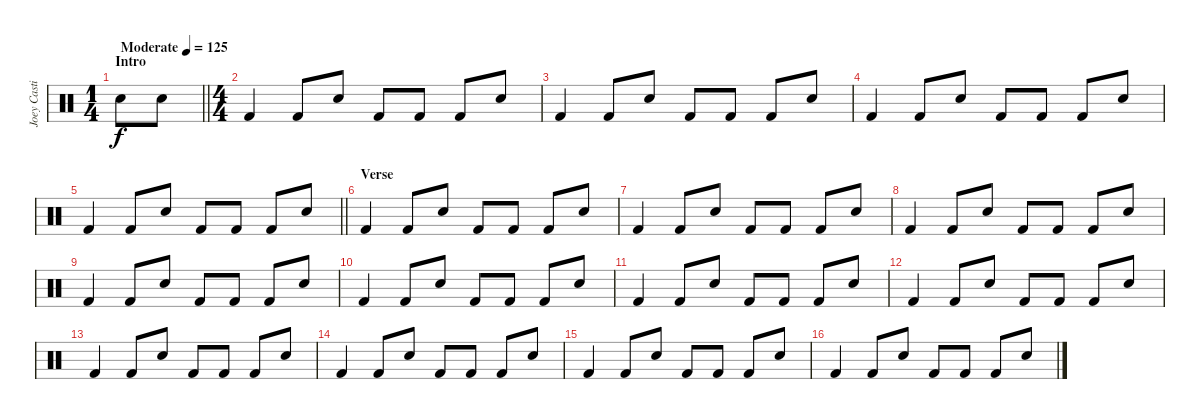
\track ("Joey Castillo" "Joey Casti") {instrument percussion}
\staff {score}
\articulation defaults
\ts (1 4)
\section ("" "Intro")
\tempo (125 "Moderate")
\clef neutral
\barLineRight lightlight
\ks c "Electric Snare (hit)".8{dy f} "Electric Snare (hit)".8
|
\ts (4 4)
\section ("" "")
"Kick (hit) 2".4 "Kick (hit) 2".8 "Electric Snare (hit)".8 "Kick (hit) 2".8 "Kick (hit) 2".8 "Kick (hit) 2".8 "Electric Snare (hit)".8 |
"Kick (hit) 2".4 "Kick (hit) 2".8 "Electric Snare (hit)".8 "Kick (hit) 2".8 "Kick (hit) 2".8 "Kick (hit) 2".8 "Electric Snare (hit)".8 |
"Kick (hit) 2".4 "Kick (hit) 2".8 "Electric Snare (hit)".8 "Kick (hit) 2".8 "Kick (hit) 2".8 "Kick (hit) 2".8 "Electric Snare (hit)".8 |
\barLineRight lightlight "Kick (hit) 2".4 "Kick (hit) 2".8 "Electric Snare (hit)".8 "Kick (hit) 2".8 "Kick (hit) 2".8 "Kick (hit) 2".8 "Electric Snare (hit)".8
|
\section ("" "Verse")
"Kick (hit) 2".4 "Kick (hit) 2".8 "Electric Snare (hit)".8 "Kick (hit) 2".8 "Kick (hit) 2".8 "Kick (hit) 2".8 "Electric Snare (hit)".8 |
"Kick (hit) 2".4 "Kick (hit) 2".8 "Electric Snare (hit)".8 "Kick (hit) 2".8 "Kick (hit) 2".8 "Kick (hit) 2".8 "Electric Snare (hit)".8 |
"Kick (hit) 2".4 "Kick (hit) 2".8 "Electric Snare (hit)".8 "Kick (hit) 2".8 "Kick (hit) 2".8 "Kick (hit) 2".8 "Electric Snare (hit)".8 |
"Kick (hit) 2".4 "Kick (hit) 2".8 "Electric Snare (hit)".8 "Kick (hit) 2".8 "Kick (hit) 2".8 "Kick (hit) 2".8 "Electric Snare (hit)".8 |
"Kick (hit) 2".4 "Kick (hit) 2".8 "Electric Snare (hit)".8 "Kick (hit) 2".8 "Kick (hit) 2".8 "Kick (hit) 2".8 "Electric Snare (hit)".8 |
"Kick (hit) 2".4 "Kick (hit) 2".8 "Electric Snare (hit)".8 "Kick (hit) 2".8 "Kick (hit) 2".8 "Kick (hit) 2".8 "Electric Snare (hit)".8 |
"Kick (hit) 2".4 "Kick (hit) 2".8 "Electric Snare (hit)".8 "Kick (hit) 2".8 "Kick (hit) 2".8 "Kick (hit) 2".8 "Electric Snare (hit)".8 |
"Kick (hit) 2".4 "Kick (hit) 2".8 "Electric Snare (hit)".8 "Kick (hit) 2".8 "Kick (hit) 2".8 "Kick (hit) 2".8 "Electric Snare (hit)".8 |
"Kick (hit) 2".4 "Kick (hit) 2".8 "Electric Snare (hit)".8 "Kick (hit) 2".8 "Kick (hit) 2".8 "Kick (hit) 2".8 "Electric Snare (hit)".8 |
"Kick (hit) 2".4 "Kick (hit) 2".8 "Electric Snare (hit)".8 "Kick (hit) 2".8 "Kick (hit) 2".8 "Kick (hit) 2".8 "Electric Snare (hit)".8 |
"Kick (hit) 2".4 "Kick (hit) 2".8 "Electric Snare (hit)".8 "Kick (hit) 2".8 "Kick (hit) 2".8 "Kick (hit) 2".8 "Electric Snare (hit)".8
